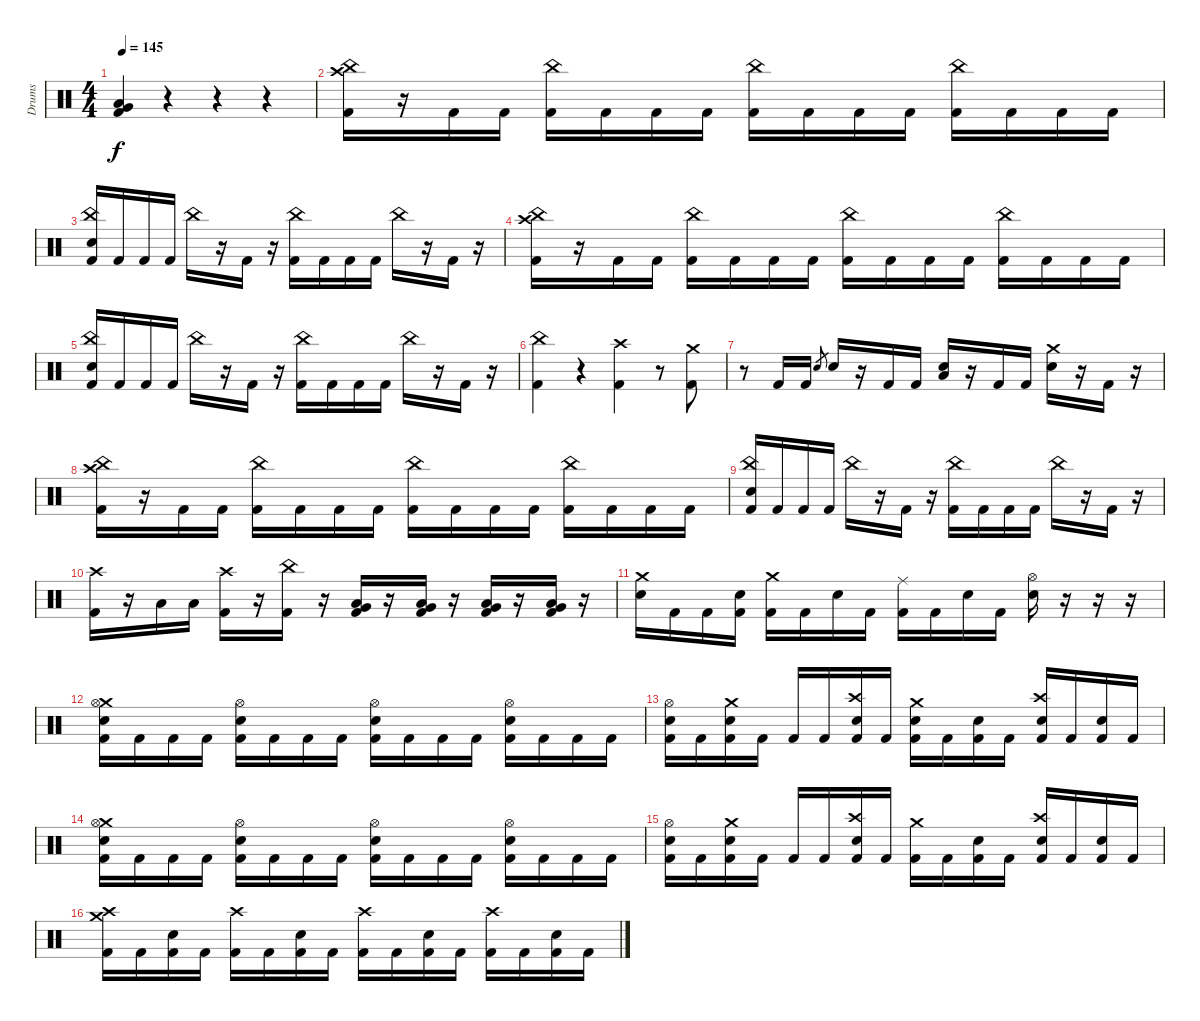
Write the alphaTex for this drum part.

\track ("Drums" "Drums") {instrument percussion}
\staff {score}
\articulation defaults
\ts (4 4)
\tempo 145
\clef neutral
\ks c
("Very Low Tom (hit)" "Low Floor Tom (hit)" "Kick (hit) 2").4{dy f} r.4 r.4 r.4 |
("Crash high (hit)" "China (hit)" "Kick (hit) 2").16 r.16 "Kick (hit) 2".16 "Kick (hit) 2".16 ("China (hit)" "Kick (hit) 2").16 "Kick (hit) 2".16 "Kick (hit) 2".16 "Kick (hit) 2".16 ("China (hit)" "Kick (hit) 2").16 "Kick (hit) 2".16 "Kick (hit) 2".16 "Kick (hit) 2".16 ("China (hit)" "Kick (hit) 2").16 "Kick (hit) 2".16 "Kick (hit) 2".16 "Kick (hit) 2".16 |
("China (hit)" "Electric Snare (hit)" "Kick (hit) 2").16 "Kick (hit) 2".16 "Kick (hit) 2".16 "Kick (hit) 2".16 "China (hit)".16 r.16 "Kick (hit) 2".16 r.16 ("China (hit)" "Kick (hit) 2").16 "Kick (hit) 2".16 "Kick (hit) 2".16 "Kick (hit) 2".16 "China (hit)".16 r.16 "Kick (hit) 2".16 r.16 |
("Crash high (hit)" "China (hit)" "Kick (hit) 2").16 r.16 "Kick (hit) 2".16 "Kick (hit) 2".16 ("China (hit)" "Kick (hit) 2").16 "Kick (hit) 2".16 "Kick (hit) 2".16 "Kick (hit) 2".16 ("China (hit)" "Kick (hit) 2").16 "Kick (hit) 2".16 "Kick (hit) 2".16 "Kick (hit) 2".16 ("China (hit)" "Kick (hit) 2").16 "Kick (hit) 2".16 "Kick (hit) 2".16 "Kick (hit) 2".16 |
("China (hit)" "Electric Snare (hit)" "Kick (hit) 2").16 "Kick (hit) 2".16 "Kick (hit) 2".16 "Kick (hit) 2".16 "China (hit)".16 r.16 "Kick (hit) 2".16 r.16 ("China (hit)" "Kick (hit) 2").16 "Kick (hit) 2".16 "Kick (hit) 2".16 "Kick (hit) 2".16 "China (hit)".16 r.16 "Kick (hit) 2".16 r.16 |
("China (hit)" "Kick (hit) 2").4 r.4 ("Crash high (hit)" "Kick (hit) 2").4 r.8 ("Crash medium (hit)" "Kick (hit) 2").8 |
r.8 "Kick (hit) 2".16 "Kick (hit) 2".16 "Electric Snare (hit)".8{gr} "Electric Snare (hit)".16 r.16 "Kick (hit) 2".16 "Kick (hit) 2".16 ("Low Floor Tom (hit)" "Electric Snare (hit)").16 r.16 "Kick (hit) 2".16 "Kick (hit) 2".16 ("Crash medium (hit)" "Electric Snare (hit)").16 r.16 "Kick (hit) 2".16 r.16 |
("Crash high (hit)" "China (hit)" "Kick (hit) 2").16 r.16 "Kick (hit) 2".16 "Kick (hit) 2".16 ("China (hit)" "Kick (hit) 2").16 "Kick (hit) 2".16 "Kick (hit) 2".16 "Kick (hit) 2".16 ("China (hit)" "Kick (hit) 2").16 "Kick (hit) 2".16 "Kick (hit) 2".16 "Kick (hit) 2".16 ("China (hit)" "Kick (hit) 2").16 "Kick (hit) 2".16 "Kick (hit) 2".16 "Kick (hit) 2".16 |
("China (hit)" "Electric Snare (hit)" "Kick (hit) 2").16 "Kick (hit) 2".16 "Kick (hit) 2".16 "Kick (hit) 2".16 "China (hit)".16 r.16 "Kick (hit) 2".16 r.16 ("China (hit)" "Kick (hit) 2").16 "Kick (hit) 2".16 "Kick (hit) 2".16 "Kick (hit) 2".16 "China (hit)".16 r.16 "Kick (hit) 2".16 r.16 |
("Crash high (hit)" "Kick (hit) 2").16 r.16 "Low Tom (hit)".16 "Low Tom (hit)".16 ("Crash high (hit)" "Kick (hit) 2").16 r.16 ("China (hit)" "Kick (hit) 2").16 r.16 ("Low Floor Tom (hit)" "Very Low Tom (hit)" "Kick (hit) 2").16 r.16 ("Low Floor Tom (hit)" "Very Low Tom (hit)" "Kick (hit) 2").16 r.16 ("Low Floor Tom (hit)" "Very Low Tom (hit)" "Kick (hit) 2").16 r.16 ("Low Floor Tom (hit)" "Very Low Tom (hit)" "Kick (hit) 2").16 r.16 |
("Crash medium (hit)" "Electric Snare (hit)").16 "Kick (hit) 2".16 "Kick (hit) 2".16 ("Electric Snare (hit)" "Kick (hit) 2").16 ("Crash medium (hit)" "Kick (hit) 2").16 "Kick (hit) 2".16 "Electric Snare (hit)".16 "Kick (hit) 2".16 ("Ride (middle)" "Kick (hit) 2").16 "Kick (hit) 2".16 "Electric Snare (hit)".16 "Kick (hit) 2".16 ("Hi-Hat (open)" "Electric Snare (hit)").16 r.16 r.16 r.16 |
("Crash medium (hit)" "Hi-Hat (open)" "Electric Snare (hit)" "Kick (hit) 2").16 "Kick (hit) 2".16 "Kick (hit) 2".16 "Kick (hit) 2".16 ("Hi-Hat (open)" "Electric Snare (hit)" "Kick (hit) 2").16 "Kick (hit) 2".16 "Kick (hit) 2".16 "Kick (hit) 2".16 ("Hi-Hat (open)" "Electric Snare (hit)" "Kick (hit) 2").16 "Kick (hit) 2".16 "Kick (hit) 2".16 "Kick (hit) 2".16 ("Hi-Hat (open)" "Electric Snare (hit)" "Kick (hit) 2").16 "Kick (hit) 2".16 "Kick (hit) 2".16 "Kick (hit) 2".16 |
("Hi-Hat (open)" "Electric Snare (hit)" "Kick (hit) 2").16 "Kick (hit) 2".16 ("Crash medium (hit)" "Electric Snare (hit)" "Kick (hit) 2").16 "Kick (hit) 2".16 "Kick (hit) 2".16 "Kick (hit) 2".16 ("Crash high (hit)" "Electric Snare (hit)" "Kick (hit) 2").16 "Kick (hit) 2".16 ("Crash medium (hit)" "Electric Snare (hit)" "Kick (hit) 2").16 "Kick (hit) 2".16 ("Electric Snare (hit)" "Kick (hit) 2").16 "Kick (hit) 2".16 ("Crash high (hit)" "Electric Snare (hit)" "Kick (hit) 2").16 "Kick (hit) 2".16 ("Electric Snare (hit)" "Kick (hit) 2").16 "Kick (hit) 2".16 |
("Crash medium (hit)" "Hi-Hat (open)" "Electric Snare (hit)" "Kick (hit) 2").16 "Kick (hit) 2".16 "Kick (hit) 2".16 "Kick (hit) 2".16 ("Hi-Hat (open)" "Electric Snare (hit)" "Kick (hit) 2").16 "Kick (hit) 2".16 "Kick (hit) 2".16 "Kick (hit) 2".16 ("Hi-Hat (open)" "Electric Snare (hit)" "Kick (hit) 2").16 "Kick (hit) 2".16 "Kick (hit) 2".16 "Kick (hit) 2".16 ("Hi-Hat (open)" "Electric Snare (hit)" "Kick (hit) 2").16 "Kick (hit) 2".16 "Kick (hit) 2".16 "Kick (hit) 2".16 |
("Hi-Hat (open)" "Electric Snare (hit)" "Kick (hit) 2").16 "Kick (hit) 2".16 ("Crash medium (hit)" "Electric Snare (hit)" "Kick (hit) 2").16 "Kick (hit) 2".16 "Kick (hit) 2".16 "Kick (hit) 2".16 ("Crash high (hit)" "Electric Snare (hit)" "Kick (hit) 2").16 "Kick (hit) 2".16 ("Crash medium (hit)" "Kick (hit) 2").16 "Kick (hit) 2".16 ("Electric Snare (hit)" "Kick (hit) 2").16 "Kick (hit) 2".16 ("Crash high (hit)" "Electric Snare (hit)" "Kick (hit) 2").16 "Kick (hit) 2".16 ("Electric Snare (hit)" "Kick (hit) 2").16 "Kick (hit) 2".16 |
("Crash medium (hit)" "Crash high (hit)" "Kick (hit) 2").16 "Kick (hit) 2".16 ("Electric Snare (hit)" "Kick (hit) 2").16 "Kick (hit) 2".16 ("Crash high (hit)" "Kick (hit) 2").16 "Kick (hit) 2".16 ("Electric Snare (hit)" "Kick (hit) 2").16 "Kick (hit) 2".16 ("Crash high (hit)" "Kick (hit) 2").16 "Kick (hit) 2".16 ("Electric Snare (hit)" "Kick (hit) 2").16 "Kick (hit) 2".16 ("Crash high (hit)" "Kick (hit) 2").16 "Kick (hit) 2".16 ("Electric Snare (hit)" "Kick (hit) 2").16 "Kick (hit) 2".16
